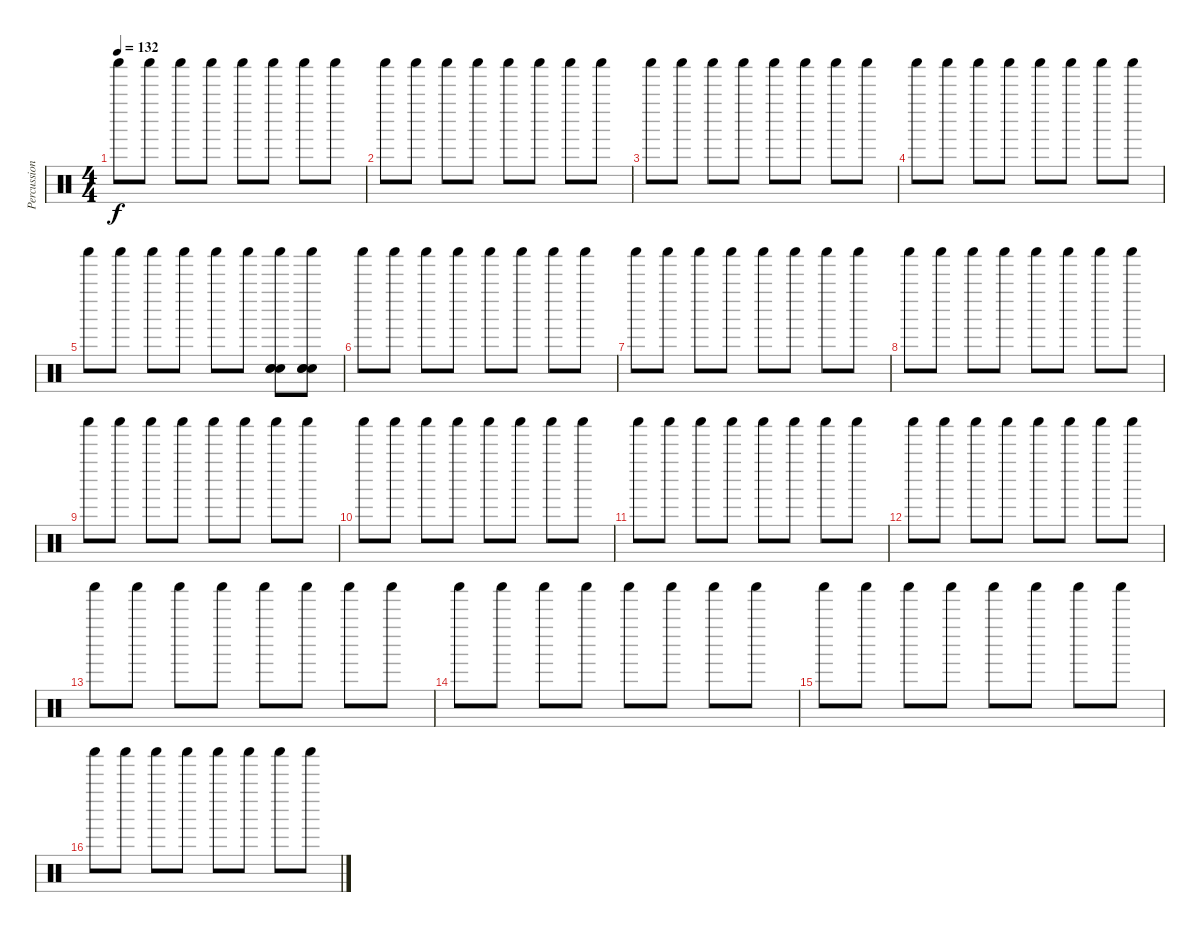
\track ("Percussion" "Percussion") {instrument percussion}
\staff {score}
\articulation defaults
\ts (4 4)
\tempo 132
\clef neutral
\ks c "Shaker (hit)".8{dy f} "Shaker (hit)".8 "Shaker (hit)".8 "Shaker (hit)".8 "Shaker (hit)".8 "Shaker (hit)".8 "Shaker (hit)".8 "Shaker (hit)".8
|
"Shaker (hit)".8 "Shaker (hit)".8 "Shaker (hit)".8 "Shaker (hit)".8 "Shaker (hit)".8 "Shaker (hit)".8 "Shaker (hit)".8 "Shaker (hit)".8 |
"Shaker (hit)".8 "Shaker (hit)".8 "Shaker (hit)".8 "Shaker (hit)".8 "Shaker (hit)".8 "Shaker (hit)".8 "Shaker (hit)".8 "Shaker (hit)".8 |
"Shaker (hit)".8 "Shaker (hit)".8 "Shaker (hit)".8 "Shaker (hit)".8 "Shaker (hit)".8 "Shaker (hit)".8 "Shaker (hit)".8 "Shaker (hit)".8 |
"Shaker (hit)".8 "Shaker (hit)".8 "Shaker (hit)".8 "Shaker (hit)".8 "Shaker (hit)".8 "Shaker (hit)".8 ("Shaker (hit)" "Hand Clap (hit)" "Hand Clap (hit)" "Hand Clap (hit)").8 ("Shaker (hit)" "Hand Clap (hit)" "Hand Clap (hit)" "Hand Clap (hit)").8 |
"Shaker (hit)".8 "Shaker (hit)".8 "Shaker (hit)".8 "Shaker (hit)".8 "Shaker (hit)".8 "Shaker (hit)".8 "Shaker (hit)".8 "Shaker (hit)".8 |
"Shaker (hit)".8 "Shaker (hit)".8 "Shaker (hit)".8 "Shaker (hit)".8 "Shaker (hit)".8 "Shaker (hit)".8 "Shaker (hit)".8 "Shaker (hit)".8 |
"Shaker (hit)".8 "Shaker (hit)".8 "Shaker (hit)".8 "Shaker (hit)".8 "Shaker (hit)".8 "Shaker (hit)".8 "Shaker (hit)".8 "Shaker (hit)".8 |
"Shaker (hit)".8 "Shaker (hit)".8 "Shaker (hit)".8 "Shaker (hit)".8 "Shaker (hit)".8 "Shaker (hit)".8 "Shaker (hit)".8 "Shaker (hit)".8 |
"Shaker (hit)".8 "Shaker (hit)".8 "Shaker (hit)".8 "Shaker (hit)".8 "Shaker (hit)".8 "Shaker (hit)".8 "Shaker (hit)".8 "Shaker (hit)".8 |
"Shaker (hit)".8 "Shaker (hit)".8 "Shaker (hit)".8 "Shaker (hit)".8 "Shaker (hit)".8 "Shaker (hit)".8 "Shaker (hit)".8 "Shaker (hit)".8 |
"Shaker (hit)".8 "Shaker (hit)".8 "Shaker (hit)".8 "Shaker (hit)".8 "Shaker (hit)".8 "Shaker (hit)".8 "Shaker (hit)".8 "Shaker (hit)".8 |
"Shaker (hit)".8 "Shaker (hit)".8 "Shaker (hit)".8 "Shaker (hit)".8 "Shaker (hit)".8 "Shaker (hit)".8 "Shaker (hit)".8 "Shaker (hit)".8 |
"Shaker (hit)".8 "Shaker (hit)".8 "Shaker (hit)".8 "Shaker (hit)".8 "Shaker (hit)".8 "Shaker (hit)".8 "Shaker (hit)".8 "Shaker (hit)".8 |
"Shaker (hit)".8 "Shaker (hit)".8 "Shaker (hit)".8 "Shaker (hit)".8 "Shaker (hit)".8 "Shaker (hit)".8 "Shaker (hit)".8 "Shaker (hit)".8 |
"Shaker (hit)".8 "Shaker (hit)".8 "Shaker (hit)".8 "Shaker (hit)".8 "Shaker (hit)".8 "Shaker (hit)".8 "Shaker (hit)".8 "Shaker (hit)".8
